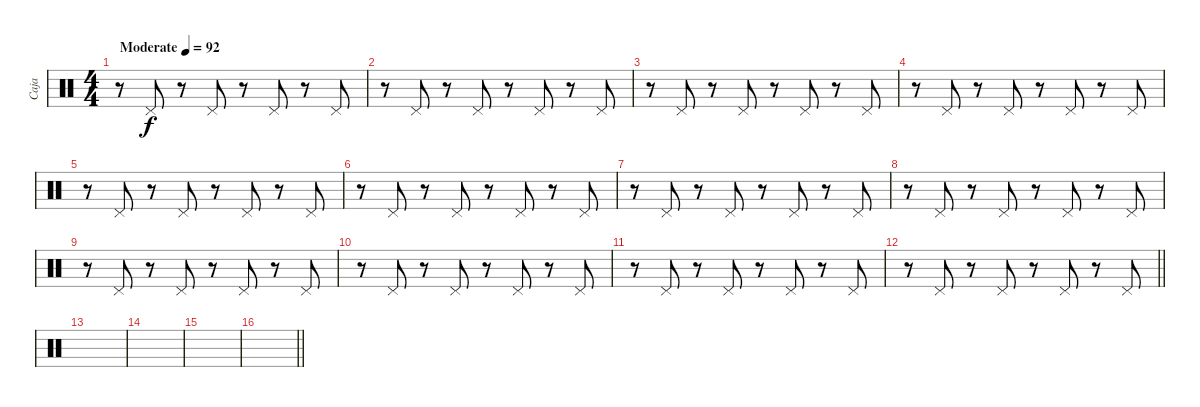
\track ("Caja" "Caja") {instrument percussion}
\staff {score}
\articulation defaults
\ts (4 4)
\tempo (92 "Moderate")
\clef neutral
\ks c
r.8{dy f} "Pedal Hi-Hat (hit)".8 r.8 "Pedal Hi-Hat (hit)".8 r.8 "Pedal Hi-Hat (hit)".8 r.8 "Pedal Hi-Hat (hit)".8 |
r.8 "Pedal Hi-Hat (hit)".8 r.8 "Pedal Hi-Hat (hit)".8 r.8 "Pedal Hi-Hat (hit)".8 r.8 "Pedal Hi-Hat (hit)".8 |
r.8 "Pedal Hi-Hat (hit)".8 r.8 "Pedal Hi-Hat (hit)".8 r.8 "Pedal Hi-Hat (hit)".8 r.8 "Pedal Hi-Hat (hit)".8 |
r.8 "Pedal Hi-Hat (hit)".8 r.8 "Pedal Hi-Hat (hit)".8 r.8 "Pedal Hi-Hat (hit)".8 r.8 "Pedal Hi-Hat (hit)".8 |
r.8 "Pedal Hi-Hat (hit)".8 r.8 "Pedal Hi-Hat (hit)".8 r.8 "Pedal Hi-Hat (hit)".8 r.8 "Pedal Hi-Hat (hit)".8 |
r.8 "Pedal Hi-Hat (hit)".8 r.8 "Pedal Hi-Hat (hit)".8 r.8 "Pedal Hi-Hat (hit)".8 r.8 "Pedal Hi-Hat (hit)".8 |
r.8 "Pedal Hi-Hat (hit)".8 r.8 "Pedal Hi-Hat (hit)".8 r.8 "Pedal Hi-Hat (hit)".8 r.8 "Pedal Hi-Hat (hit)".8 |
r.8 "Pedal Hi-Hat (hit)".8 r.8 "Pedal Hi-Hat (hit)".8 r.8 "Pedal Hi-Hat (hit)".8 r.8 "Pedal Hi-Hat (hit)".8 |
r.8 "Pedal Hi-Hat (hit)".8 r.8 "Pedal Hi-Hat (hit)".8 r.8 "Pedal Hi-Hat (hit)".8 r.8 "Pedal Hi-Hat (hit)".8 |
r.8 "Pedal Hi-Hat (hit)".8 r.8 "Pedal Hi-Hat (hit)".8 r.8 "Pedal Hi-Hat (hit)".8 r.8 "Pedal Hi-Hat (hit)".8 |
r.8 "Pedal Hi-Hat (hit)".8 r.8 "Pedal Hi-Hat (hit)".8 r.8 "Pedal Hi-Hat (hit)".8 r.8 "Pedal Hi-Hat (hit)".8 |
\barLineRight lightlight
r.8 "Pedal Hi-Hat (hit)".8 r.8 "Pedal Hi-Hat (hit)".8 r.8 "Pedal Hi-Hat (hit)".8 r.8 "Pedal Hi-Hat (hit)".8 |
\section ("" "")
|
|
|
\barLineRight lightlight
